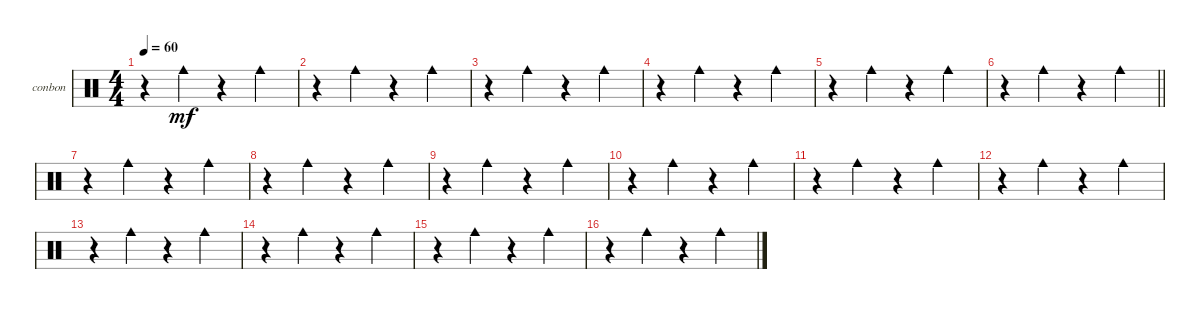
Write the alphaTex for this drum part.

\defaultSystemsLayout 4
\bracketExtendMode groupsimilarinstruments
\firstSystemTrackNameOrientation horizontal
\otherSystemsTrackNameOrientation horizontal
\track ("Bongos N Congas" "conbon") {instrument percussion}
\staff {score}
\articulation defaults
\ts (4 4)
\tempo 60
\clef neutral
\ks c
r.4{dy mf} "Cowbell medium (hit)".4 r.4 "Cowbell medium (hit)".4 |
r.4 "Cowbell medium (hit)".4 r.4 "Cowbell medium (hit)".4 |
r.4 "Cowbell medium (hit)".4 r.4 "Cowbell medium (hit)".4 |
r.4 "Cowbell medium (hit)".4 r.4 "Cowbell medium (hit)".4 |
r.4 "Cowbell medium (hit)".4 r.4 "Cowbell medium (hit)".4 |
\barLineRight lightlight
r.4 "Cowbell medium (hit)".4 r.4 "Cowbell medium (hit)".4 |
r.4 "Cowbell medium (hit)".4 r.4 "Cowbell medium (hit)".4 |
r.4 "Cowbell medium (hit)".4 r.4 "Cowbell medium (hit)".4 |
r.4 "Cowbell medium (hit)".4 r.4 "Cowbell medium (hit)".4 |
r.4 "Cowbell medium (hit)".4 r.4 "Cowbell medium (hit)".4 |
r.4 "Cowbell medium (hit)".4 r.4 "Cowbell medium (hit)".4 |
r.4 "Cowbell medium (hit)".4 r.4 "Cowbell medium (hit)".4 |
r.4 "Cowbell medium (hit)".4 r.4 "Cowbell medium (hit)".4 |
r.4 "Cowbell medium (hit)".4 r.4 "Cowbell medium (hit)".4 |
r.4 "Cowbell medium (hit)".4 r.4 "Cowbell medium (hit)".4 |
r.4 "Cowbell medium (hit)".4 r.4 "Cowbell medium (hit)".4
